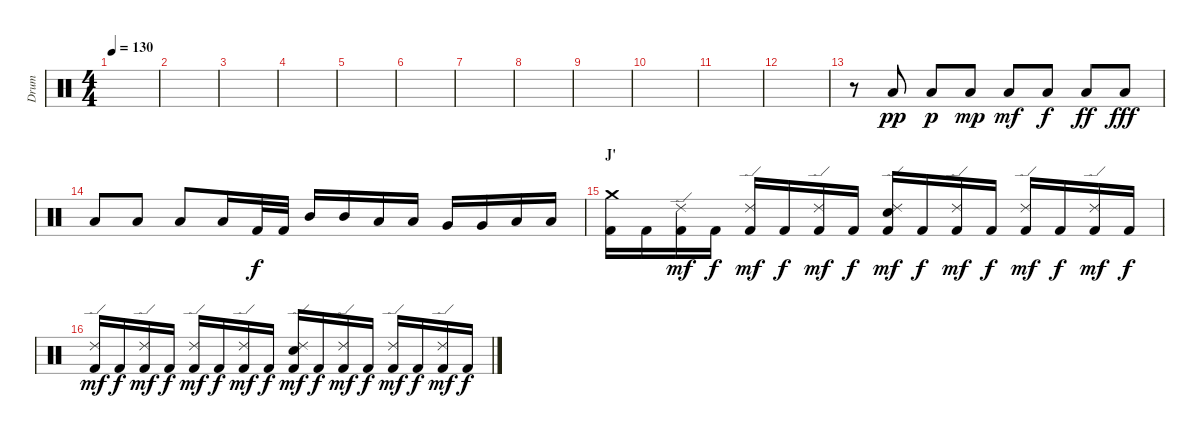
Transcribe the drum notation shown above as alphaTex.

\track ("Drum" "Drum") {instrument percussion}
\staff {score}
\articulation defaults
\ts (4 4)
\tempo 130
\clef neutral
\ks c
|
|
|
|
|
|
|
|
|
|
|
|
r.8 "Low Floor Tom (hit)".8{dy pp} "Low Floor Tom (hit)".8{dy p} "Low Floor Tom (hit)".8{dy mp} "Low Floor Tom (hit)".8{dy mf} "Low Floor Tom (hit)".8{dy f} "Low Floor Tom (hit)".8{dy ff} "Low Floor Tom (hit)".8{dy fff} |
"Low Floor Tom (hit)".8 "Low Floor Tom (hit)".8 "Low Floor Tom (hit)".8 "Low Floor Tom (hit)".16 "Kick (hit) 2".32{dy f} "Kick (hit) 2".32 "Mid Tom (hit)".16 "Mid Tom (hit)".16 "Low Tom (hit)".16 "Low Tom (hit)".16 "Very Low Tom (hit)".16 "Very Low Tom (hit)".16 "Low Floor Tom (hit)".16 "Low Floor Tom (hit)".16 |
\section ("" "J'")
("Crash medium (hit)" "Kick (hit) 2").16 "Kick (hit) 2".16 ("Ride (edge) 2" "Kick (hit) 2").16{dy mf} "Kick (hit) 2".16{dy f} ("Ride (edge) 2" "Kick (hit) 2").16{dy mf} "Kick (hit) 2".16{dy f} ("Ride (edge) 2" "Kick (hit) 2").16{dy mf} "Kick (hit) 2".16{dy f} ("Ride (edge) 2" "Electric Snare (hit)" "Kick (hit) 2").16{dy mf} "Kick (hit) 2".16{dy f} ("Ride (edge) 2" "Kick (hit) 2").16{dy mf} "Kick (hit) 2".16{dy f} ("Ride (edge) 2" "Kick (hit) 2").16{dy mf} "Kick (hit) 2".16{dy f} ("Ride (edge) 2" "Kick (hit) 2").16{dy mf} "Kick (hit) 2".16{dy f} |
("Ride (edge) 2" "Kick (hit) 2").16{dy mf} "Kick (hit) 2".16{dy f} ("Ride (edge) 2" "Kick (hit) 2").16{dy mf} "Kick (hit) 2".16{dy f} ("Ride (edge) 2" "Kick (hit) 2").16{dy mf} "Kick (hit) 2".16{dy f} ("Ride (edge) 2" "Kick (hit) 2").16{dy mf} "Kick (hit) 2".16{dy f} ("Ride (edge) 2" "Electric Snare (hit)" "Kick (hit) 2").16{dy mf} "Kick (hit) 2".16{dy f} ("Ride (edge) 2" "Kick (hit) 2").16{dy mf} "Kick (hit) 2".16{dy f} ("Ride (edge) 2" "Kick (hit) 2").16{dy mf} "Kick (hit) 2".16{dy f} ("Ride (edge) 2" "Kick (hit) 2").16{dy mf} "Kick (hit) 2".16{dy f}
